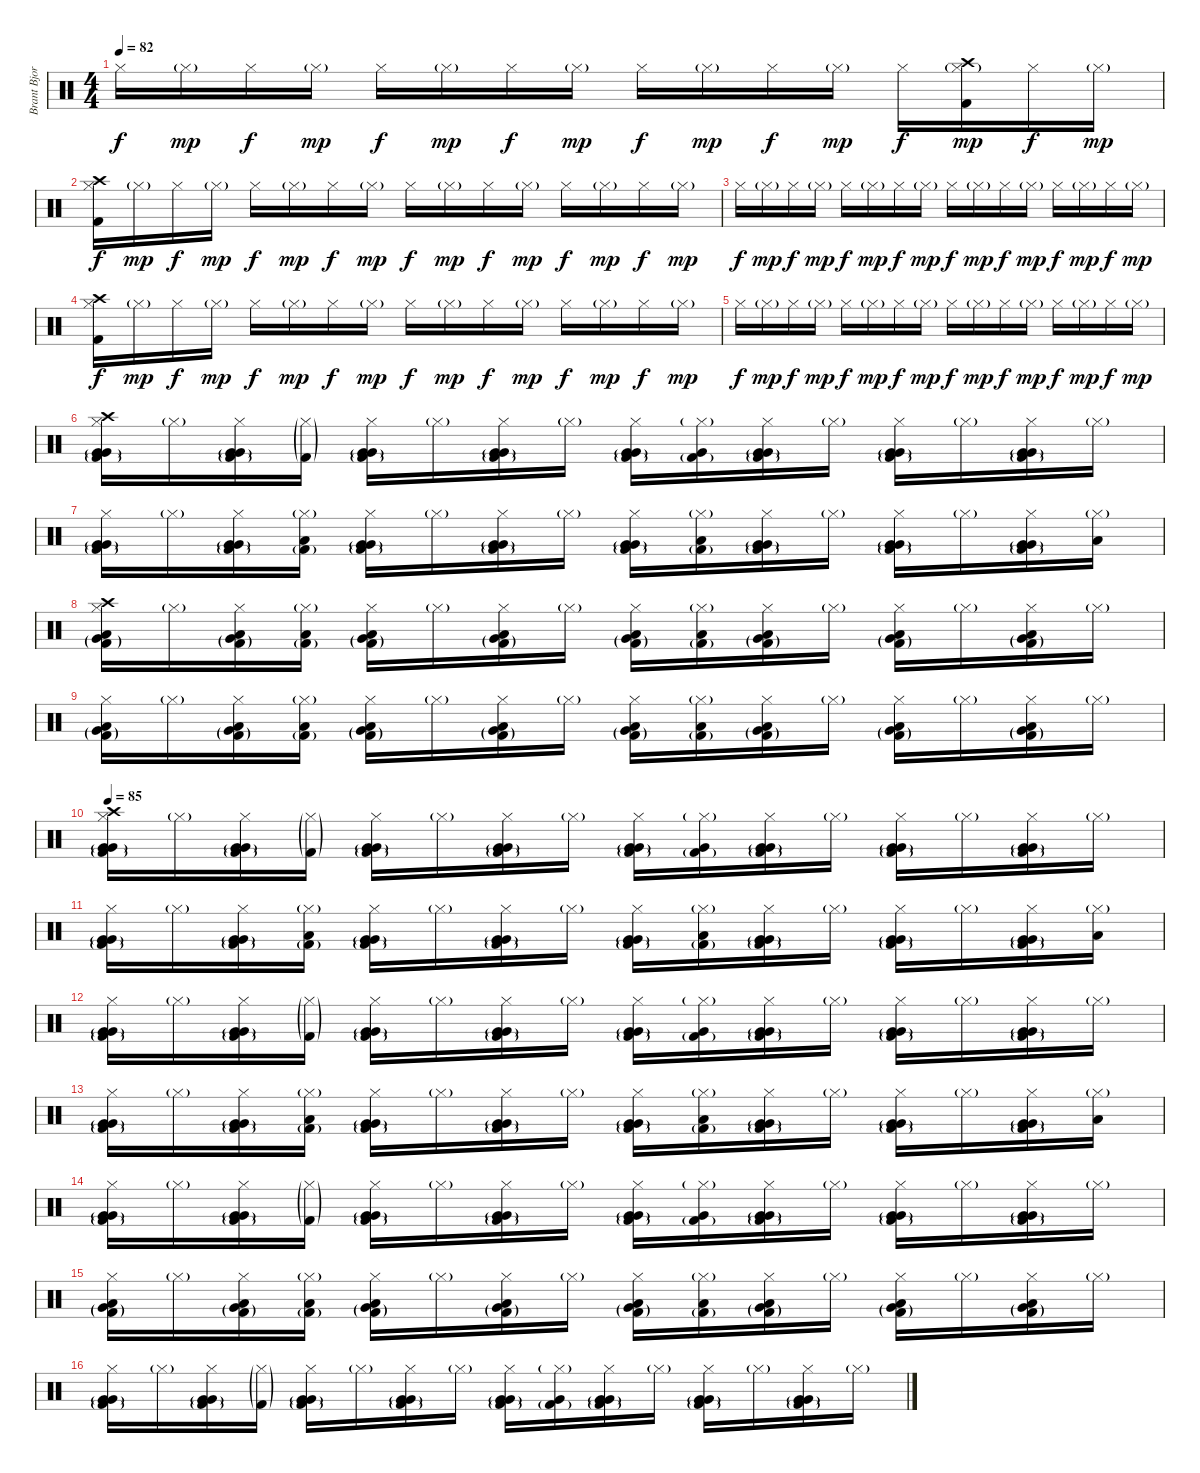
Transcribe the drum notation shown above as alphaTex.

\track ("Brant Bjork" "Brant Bjor") {instrument percussion}
\staff {score}
\articulation defaults
\ts (4 4)
\tempo 82
\clef neutral
\ks c "Hi-Hat (closed)".16{dy f} "Hi-Hat (closed)"{g}.16{dy mp} "Hi-Hat (closed)".16{dy f} "Hi-Hat (closed)"{g}.16{dy mp} "Hi-Hat (closed)".16{dy f} "Hi-Hat (closed)"{g}.16{dy mp} "Hi-Hat (closed)".16{dy f} "Hi-Hat (closed)"{g}.16{dy mp} "Hi-Hat (closed)".16{dy f} "Hi-Hat (closed)"{g}.16{dy mp} "Hi-Hat (closed)".16{dy f} "Hi-Hat (closed)"{g}.16{dy mp} "Hi-Hat (closed)".16{dy f}
("Crash high (hit)" "Kick (hit) 2" "Hi-Hat (closed)"{g}).16{dy mp} "Hi-Hat (closed)".16{dy f} "Hi-Hat (closed)"{g}.16{dy mp} |
("Crash high (hit)" "Kick (hit) 2" "Hi-Hat (closed)").16{dy f} "Hi-Hat (closed)"{g}.16{dy mp} "Hi-Hat (closed)".16{dy f} "Hi-Hat (closed)"{g}.16{dy mp} "Hi-Hat (closed)".16{dy f} "Hi-Hat (closed)"{g}.16{dy mp} "Hi-Hat (closed)".16{dy f} "Hi-Hat (closed)"{g}.16{dy mp} "Hi-Hat (closed)".16{dy f} "Hi-Hat (closed)"{g}.16{dy mp} "Hi-Hat (closed)".16{dy f} "Hi-Hat (closed)"{g}.16{dy mp} "Hi-Hat (closed)".16{dy f} "Hi-Hat (closed)"{g}.16{dy mp} "Hi-Hat (closed)".16{dy f} "Hi-Hat (closed)"{g}.16{dy mp} |
"Hi-Hat (closed)".16{dy f} "Hi-Hat (closed)"{g}.16{dy mp} "Hi-Hat (closed)".16{dy f} "Hi-Hat (closed)"{g}.16{dy mp} "Hi-Hat (closed)".16{dy f} "Hi-Hat (closed)"{g}.16{dy mp} "Hi-Hat (closed)".16{dy f} "Hi-Hat (closed)"{g}.16{dy mp} "Hi-Hat (closed)".16{dy f} "Hi-Hat (closed)"{g}.16{dy mp} "Hi-Hat (closed)".16{dy f} "Hi-Hat (closed)"{g}.16{dy mp} "Hi-Hat (closed)".16{dy f} "Hi-Hat (closed)"{g}.16{dy mp} "Hi-Hat (closed)".16{dy f} "Hi-Hat (closed)"{g}.16{dy mp} |
("Crash high (hit)" "Kick (hit) 2" "Hi-Hat (closed)").16{dy f} "Hi-Hat (closed)"{g}.16{dy mp} "Hi-Hat (closed)".16{dy f} "Hi-Hat (closed)"{g}.16{dy mp} "Hi-Hat (closed)".16{dy f} "Hi-Hat (closed)"{g}.16{dy mp} "Hi-Hat (closed)".16{dy f} "Hi-Hat (closed)"{g}.16{dy mp} "Hi-Hat (closed)".16{dy f} "Hi-Hat (closed)"{g}.16{dy mp} "Hi-Hat (closed)".16{dy f} "Hi-Hat (closed)"{g}.16{dy mp} "Hi-Hat (closed)".16{dy f} "Hi-Hat (closed)"{g}.16{dy mp} "Hi-Hat (closed)".16{dy f} "Hi-Hat (closed)"{g}.16{dy mp} |
"Hi-Hat (closed)".16{dy f} "Hi-Hat (closed)"{g}.16{dy mp} "Hi-Hat (closed)".16{dy f} "Hi-Hat (closed)"{g}.16{dy mp} "Hi-Hat (closed)".16{dy f} "Hi-Hat (closed)"{g}.16{dy mp} "Hi-Hat (closed)".16{dy f} "Hi-Hat (closed)"{g}.16{dy mp} "Hi-Hat (closed)".16{dy f} "Hi-Hat (closed)"{g}.16{dy mp} "Hi-Hat (closed)".16{dy f} "Hi-Hat (closed)"{g}.16{dy mp} "Hi-Hat (closed)".16{dy f} "Hi-Hat (closed)"{g}.16{dy mp} "Hi-Hat (closed)".16{dy f} "Hi-Hat (closed)"{g}.16{dy mp} |
("Crash high (hit)" "Very Low Tom (hit)"{g} "Very Low Tom (hit)" "Kick (hit) 2"{g} "Hi-Hat (closed)").16 "Hi-Hat (closed)"{g}.16 ("Very Low Tom (hit)"{g} "Very Low Tom (hit)" "Kick (hit) 2"{g} "Hi-Hat (closed)").16 ("Kick (hit) 2"{g} "Hi-Hat (closed)"{g}).16 ("Very Low Tom (hit)"{g} "Very Low Tom (hit)" "Kick (hit) 2"{g} "Hi-Hat (closed)").16 "Hi-Hat (closed)"{g}.16 ("Very Low Tom (hit)"{g} "Very Low Tom (hit)" "Kick (hit) 2"{g} "Hi-Hat (closed)").16 "Hi-Hat (closed)"{g}.16 ("Very Low Tom (hit)"{g} "Very Low Tom (hit)" "Kick (hit) 2"{g} "Hi-Hat (closed)").16 ("Very Low Tom (hit)" "Kick (hit) 2"{g} "Hi-Hat (closed)"{g}).16 ("Very Low Tom (hit)"{g} "Very Low Tom (hit)" "Kick (hit) 2"{g} "Hi-Hat (closed)").16 "Hi-Hat (closed)"{g}.16 ("Very Low Tom (hit)"{g} "Very Low Tom (hit)" "Kick (hit) 2"{g} "Hi-Hat (closed)").16 "Hi-Hat (closed)"{g}.16 ("Very Low Tom (hit)"{g} "Very Low Tom (hit)" "Kick (hit) 2"{g} "Hi-Hat (closed)").16 "Hi-Hat (closed)"{g}.16 |
("Very Low Tom (hit)"{g} "Very Low Tom (hit)" "Kick (hit) 2"{g} "Hi-Hat (closed)").16 "Hi-Hat (closed)"{g}.16 ("Very Low Tom (hit)"{g} "Very Low Tom (hit)" "Kick (hit) 2"{g} "Hi-Hat (closed)").16 ("Low Floor Tom (hit)" "Kick (hit) 2"{g} "Hi-Hat (closed)"{g}).16 ("Very Low Tom (hit)"{g} "Very Low Tom (hit)" "Kick (hit) 2"{g} "Hi-Hat (closed)").16 "Hi-Hat (closed)"{g}.16 ("Very Low Tom (hit)"{g} "Very Low Tom (hit)" "Kick (hit) 2"{g} "Hi-Hat (closed)").16 "Hi-Hat (closed)"{g}.16 ("Very Low Tom (hit)"{g} "Very Low Tom (hit)" "Kick (hit) 2"{g} "Hi-Hat (closed)").16 ("Low Floor Tom (hit)" "Kick (hit) 2"{g} "Hi-Hat (closed)"{g}).16 ("Very Low Tom (hit)"{g} "Very Low Tom (hit)" "Kick (hit) 2"{g} "Hi-Hat (closed)").16 "Hi-Hat (closed)"{g}.16 ("Very Low Tom (hit)"{g} "Very Low Tom (hit)" "Kick (hit) 2"{g} "Hi-Hat (closed)").16 "Hi-Hat (closed)"{g}.16 ("Very Low Tom (hit)"{g} "Very Low Tom (hit)" "Kick (hit) 2"{g} "Hi-Hat (closed)").16 ("Low Floor Tom (hit)" "Hi-Hat (closed)"{g}).16 |
("Crash high (hit)" "Very Low Tom (hit)"{g} "Low Tom (hit)" "Kick (hit) 2"{g} "Hi-Hat (closed)").16 "Hi-Hat (closed)"{g}.16 ("Very Low Tom (hit)"{g} "Low Tom (hit)" "Kick (hit) 2"{g} "Hi-Hat (closed)").16 ("Low Tom (hit)" "Kick (hit) 2"{g} "Hi-Hat (closed)"{g}).16 ("Very Low Tom (hit)"{g} "Low Tom (hit)" "Kick (hit) 2"{g} "Hi-Hat (closed)").16 "Hi-Hat (closed)"{g}.16 ("Very Low Tom (hit)"{g} "Low Tom (hit)" "Kick (hit) 2"{g} "Hi-Hat (closed)").16 "Hi-Hat (closed)"{g}.16 ("Very Low Tom (hit)"{g} "Low Tom (hit)" "Kick (hit) 2"{g} "Hi-Hat (closed)").16 ("Low Tom (hit)" "Kick (hit) 2"{g} "Hi-Hat (closed)"{g}).16 ("Very Low Tom (hit)"{g} "Low Tom (hit)" "Kick (hit) 2"{g} "Hi-Hat (closed)").16 "Hi-Hat (closed)"{g}.16 ("Very Low Tom (hit)"{g} "Low Tom (hit)" "Kick (hit) 2"{g} "Hi-Hat (closed)").16 "Hi-Hat (closed)"{g}.16 ("Very Low Tom (hit)"{g} "Low Tom (hit)" "Kick (hit) 2"{g} "Hi-Hat (closed)").16 "Hi-Hat (closed)"{g}.16 |
("Very Low Tom (hit)"{g} "Low Tom (hit)" "Kick (hit) 2"{g} "Hi-Hat (closed)").16 "Hi-Hat (closed)"{g}.16 ("Very Low Tom (hit)"{g} "Low Tom (hit)" "Kick (hit) 2"{g} "Hi-Hat (closed)").16 ("Low Tom (hit)" "Kick (hit) 2"{g} "Hi-Hat (closed)"{g}).16 ("Very Low Tom (hit)"{g} "Low Tom (hit)" "Kick (hit) 2"{g} "Hi-Hat (closed)").16 "Hi-Hat (closed)"{g}.16 ("Very Low Tom (hit)"{g} "Low Tom (hit)" "Kick (hit) 2"{g} "Hi-Hat (closed)").16 "Hi-Hat (closed)"{g}.16 ("Very Low Tom (hit)"{g} "Low Tom (hit)" "Kick (hit) 2"{g} "Hi-Hat (closed)").16 ("Low Tom (hit)" "Kick (hit) 2"{g} "Hi-Hat (closed)"{g}).16 ("Very Low Tom (hit)"{g} "Low Tom (hit)" "Kick (hit) 2"{g} "Hi-Hat (closed)").16 "Hi-Hat (closed)"{g}.16 ("Very Low Tom (hit)"{g} "Low Tom (hit)" "Kick (hit) 2"{g} "Hi-Hat (closed)").16 "Hi-Hat (closed)"{g}.16 ("Very Low Tom (hit)"{g} "Low Tom (hit)" "Kick (hit) 2"{g} "Hi-Hat (closed)").16 "Hi-Hat (closed)"{g}.16 |
\tempo 85
("Crash high (hit)" "Very Low Tom (hit)"{g} "Very Low Tom (hit)" "Kick (hit) 2"{g} "Hi-Hat (closed)").16 "Hi-Hat (closed)"{g}.16 ("Very Low Tom (hit)"{g} "Very Low Tom (hit)" "Kick (hit) 2"{g} "Hi-Hat (closed)").16 ("Kick (hit) 2"{g} "Hi-Hat (closed)"{g}).16 ("Very Low Tom (hit)"{g} "Very Low Tom (hit)" "Kick (hit) 2"{g} "Hi-Hat (closed)").16 "Hi-Hat (closed)"{g}.16 ("Very Low Tom (hit)"{g} "Very Low Tom (hit)" "Kick (hit) 2"{g} "Hi-Hat (closed)").16 "Hi-Hat (closed)"{g}.16 ("Very Low Tom (hit)"{g} "Very Low Tom (hit)" "Kick (hit) 2"{g} "Hi-Hat (closed)").16 ("Very Low Tom (hit)" "Kick (hit) 2"{g} "Hi-Hat (closed)"{g}).16 ("Very Low Tom (hit)"{g} "Very Low Tom (hit)" "Kick (hit) 2"{g} "Hi-Hat (closed)").16 "Hi-Hat (closed)"{g}.16 ("Very Low Tom (hit)"{g} "Very Low Tom (hit)" "Kick (hit) 2"{g} "Hi-Hat (closed)").16 "Hi-Hat (closed)"{g}.16 ("Very Low Tom (hit)"{g} "Very Low Tom (hit)" "Kick (hit) 2"{g} "Hi-Hat (closed)").16 "Hi-Hat (closed)"{g}.16 |
("Very Low Tom (hit)"{g} "Very Low Tom (hit)" "Kick (hit) 2"{g} "Hi-Hat (closed)").16 "Hi-Hat (closed)"{g}.16 ("Very Low Tom (hit)"{g} "Very Low Tom (hit)" "Kick (hit) 2"{g} "Hi-Hat (closed)").16 ("Low Floor Tom (hit)" "Kick (hit) 2"{g} "Hi-Hat (closed)"{g}).16 ("Very Low Tom (hit)"{g} "Very Low Tom (hit)" "Kick (hit) 2"{g} "Hi-Hat (closed)").16 "Hi-Hat (closed)"{g}.16 ("Very Low Tom (hit)"{g} "Very Low Tom (hit)" "Kick (hit) 2"{g} "Hi-Hat (closed)").16 "Hi-Hat (closed)"{g}.16 ("Very Low Tom (hit)"{g} "Very Low Tom (hit)" "Kick (hit) 2"{g} "Hi-Hat (closed)").16 ("Low Floor Tom (hit)" "Kick (hit) 2"{g} "Hi-Hat (closed)"{g}).16 ("Very Low Tom (hit)"{g} "Very Low Tom (hit)" "Kick (hit) 2"{g} "Hi-Hat (closed)").16 "Hi-Hat (closed)"{g}.16 ("Very Low Tom (hit)"{g} "Very Low Tom (hit)" "Kick (hit) 2"{g} "Hi-Hat (closed)").16 "Hi-Hat (closed)"{g}.16 ("Very Low Tom (hit)"{g} "Very Low Tom (hit)" "Kick (hit) 2"{g} "Hi-Hat (closed)").16 ("Low Floor Tom (hit)" "Hi-Hat (closed)"{g}).16 |
("Very Low Tom (hit)"{g} "Very Low Tom (hit)" "Kick (hit) 2"{g} "Hi-Hat (closed)").16 "Hi-Hat (closed)"{g}.16 ("Very Low Tom (hit)"{g} "Very Low Tom (hit)" "Kick (hit) 2"{g} "Hi-Hat (closed)").16 ("Kick (hit) 2"{g} "Hi-Hat (closed)"{g}).16 ("Very Low Tom (hit)"{g} "Very Low Tom (hit)" "Kick (hit) 2"{g} "Hi-Hat (closed)").16 "Hi-Hat (closed)"{g}.16 ("Very Low Tom (hit)"{g} "Very Low Tom (hit)" "Kick (hit) 2"{g} "Hi-Hat (closed)").16 "Hi-Hat (closed)"{g}.16 ("Very Low Tom (hit)"{g} "Very Low Tom (hit)" "Kick (hit) 2"{g} "Hi-Hat (closed)").16 ("Very Low Tom (hit)" "Kick (hit) 2"{g} "Hi-Hat (closed)"{g}).16 ("Very Low Tom (hit)"{g} "Very Low Tom (hit)" "Kick (hit) 2"{g} "Hi-Hat (closed)").16 "Hi-Hat (closed)"{g}.16 ("Very Low Tom (hit)"{g} "Very Low Tom (hit)" "Kick (hit) 2"{g} "Hi-Hat (closed)").16 "Hi-Hat (closed)"{g}.16 ("Very Low Tom (hit)"{g} "Very Low Tom (hit)" "Kick (hit) 2"{g} "Hi-Hat (closed)").16 "Hi-Hat (closed)"{g}.16 |
("Very Low Tom (hit)"{g} "Very Low Tom (hit)" "Kick (hit) 2"{g} "Hi-Hat (closed)").16 "Hi-Hat (closed)"{g}.16 ("Very Low Tom (hit)"{g} "Very Low Tom (hit)" "Kick (hit) 2"{g} "Hi-Hat (closed)").16 ("Low Floor Tom (hit)" "Kick (hit) 2"{g} "Hi-Hat (closed)"{g}).16 ("Very Low Tom (hit)"{g} "Very Low Tom (hit)" "Kick (hit) 2"{g} "Hi-Hat (closed)").16 "Hi-Hat (closed)"{g}.16 ("Very Low Tom (hit)"{g} "Very Low Tom (hit)" "Kick (hit) 2"{g} "Hi-Hat (closed)").16 "Hi-Hat (closed)"{g}.16 ("Very Low Tom (hit)"{g} "Very Low Tom (hit)" "Kick (hit) 2"{g} "Hi-Hat (closed)").16 ("Low Floor Tom (hit)" "Kick (hit) 2"{g} "Hi-Hat (closed)"{g}).16 ("Very Low Tom (hit)"{g} "Very Low Tom (hit)" "Kick (hit) 2"{g} "Hi-Hat (closed)").16 "Hi-Hat (closed)"{g}.16 ("Very Low Tom (hit)"{g} "Very Low Tom (hit)" "Kick (hit) 2"{g} "Hi-Hat (closed)").16 "Hi-Hat (closed)"{g}.16 ("Very Low Tom (hit)"{g} "Very Low Tom (hit)" "Kick (hit) 2"{g} "Hi-Hat (closed)").16 ("Low Floor Tom (hit)" "Hi-Hat (closed)"{g}).16 |
("Very Low Tom (hit)"{g} "Very Low Tom (hit)" "Kick (hit) 2"{g} "Hi-Hat (closed)").16 "Hi-Hat (closed)"{g}.16 ("Very Low Tom (hit)"{g} "Very Low Tom (hit)" "Kick (hit) 2"{g} "Hi-Hat (closed)").16 ("Kick (hit) 2"{g} "Hi-Hat (closed)"{g}).16 ("Very Low Tom (hit)"{g} "Very Low Tom (hit)" "Kick (hit) 2"{g} "Hi-Hat (closed)").16 "Hi-Hat (closed)"{g}.16 ("Very Low Tom (hit)"{g} "Very Low Tom (hit)" "Kick (hit) 2"{g} "Hi-Hat (closed)").16 "Hi-Hat (closed)"{g}.16 ("Very Low Tom (hit)"{g} "Very Low Tom (hit)" "Kick (hit) 2"{g} "Hi-Hat (closed)").16 ("Very Low Tom (hit)" "Kick (hit) 2"{g} "Hi-Hat (closed)"{g}).16 ("Very Low Tom (hit)"{g} "Very Low Tom (hit)" "Kick (hit) 2"{g} "Hi-Hat (closed)").16 "Hi-Hat (closed)"{g}.16 ("Very Low Tom (hit)"{g} "Very Low Tom (hit)" "Kick (hit) 2"{g} "Hi-Hat (closed)").16 "Hi-Hat (closed)"{g}.16 ("Very Low Tom (hit)"{g} "Very Low Tom (hit)" "Kick (hit) 2"{g} "Hi-Hat (closed)").16 "Hi-Hat (closed)"{g}.16 |
("Very Low Tom (hit)"{g} "Low Tom (hit)" "Kick (hit) 2"{g} "Hi-Hat (closed)").16 "Hi-Hat (closed)"{g}.16 ("Very Low Tom (hit)"{g} "Low Tom (hit)" "Kick (hit) 2"{g} "Hi-Hat (closed)").16 ("Low Tom (hit)" "Kick (hit) 2"{g} "Hi-Hat (closed)"{g}).16 ("Very Low Tom (hit)"{g} "Low Tom (hit)" "Kick (hit) 2"{g} "Hi-Hat (closed)").16 "Hi-Hat (closed)"{g}.16 ("Very Low Tom (hit)"{g} "Low Tom (hit)" "Kick (hit) 2"{g} "Hi-Hat (closed)").16 "Hi-Hat (closed)"{g}.16 ("Very Low Tom (hit)"{g} "Low Tom (hit)" "Kick (hit) 2"{g} "Hi-Hat (closed)").16 ("Low Tom (hit)" "Kick (hit) 2"{g} "Hi-Hat (closed)"{g}).16 ("Very Low Tom (hit)"{g} "Low Tom (hit)" "Kick (hit) 2"{g} "Hi-Hat (closed)").16 "Hi-Hat (closed)"{g}.16 ("Very Low Tom (hit)"{g} "Low Tom (hit)" "Kick (hit) 2"{g} "Hi-Hat (closed)").16 "Hi-Hat (closed)"{g}.16 ("Very Low Tom (hit)"{g} "Low Tom (hit)" "Kick (hit) 2"{g} "Hi-Hat (closed)").16 "Hi-Hat (closed)"{g}.16 |
("Very Low Tom (hit)"{g} "Very Low Tom (hit)" "Kick (hit) 2"{g} "Hi-Hat (closed)").16 "Hi-Hat (closed)"{g}.16 ("Very Low Tom (hit)"{g} "Very Low Tom (hit)" "Kick (hit) 2"{g} "Hi-Hat (closed)").16 ("Kick (hit) 2"{g} "Hi-Hat (closed)"{g}).16 ("Very Low Tom (hit)"{g} "Very Low Tom (hit)" "Kick (hit) 2"{g} "Hi-Hat (closed)").16 "Hi-Hat (closed)"{g}.16 ("Very Low Tom (hit)"{g} "Very Low Tom (hit)" "Kick (hit) 2"{g} "Hi-Hat (closed)").16 "Hi-Hat (closed)"{g}.16 ("Very Low Tom (hit)"{g} "Very Low Tom (hit)" "Kick (hit) 2"{g} "Hi-Hat (closed)").16 ("Very Low Tom (hit)" "Kick (hit) 2"{g} "Hi-Hat (closed)"{g}).16 ("Very Low Tom (hit)"{g} "Very Low Tom (hit)" "Kick (hit) 2"{g} "Hi-Hat (closed)").16 "Hi-Hat (closed)"{g}.16 ("Very Low Tom (hit)"{g} "Very Low Tom (hit)" "Kick (hit) 2"{g} "Hi-Hat (closed)").16 "Hi-Hat (closed)"{g}.16 ("Very Low Tom (hit)"{g} "Very Low Tom (hit)" "Kick (hit) 2"{g} "Hi-Hat (closed)").16 "Hi-Hat (closed)"{g}.16
